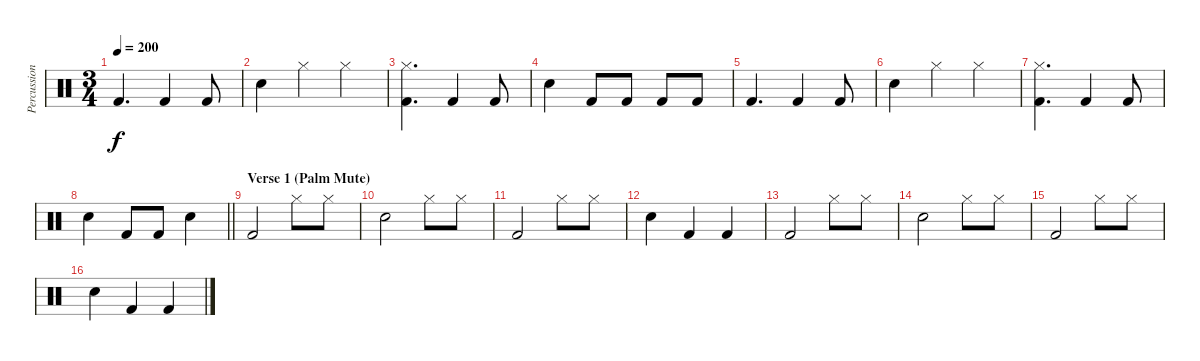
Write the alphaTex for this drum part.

\track ("Percussion" "Percussion") {instrument percussion}
\staff {score}
\articulation defaults
\ts (3 4)
\tempo 200
\clef neutral
\ks c "Kick (hit) 2".4{d dy f} "Kick (hit) 2".4 "Kick (hit) 2".8
|
"Snare (hit) 2".4 "Hi-Hat (closed)".4 "Hi-Hat (closed)".4 |
("Hi-Hat (closed)" "Kick (hit) 2").4{d} "Kick (hit) 2".4 "Kick (hit) 2".8 |
"Snare (hit) 2".4 "Kick (hit) 2".8 "Kick (hit) 2".8 "Kick (hit) 2".8 "Kick (hit) 2".8 |
"Kick (hit) 2".4{d} "Kick (hit) 2".4 "Kick (hit) 2".8 |
"Snare (hit) 2".4 "Hi-Hat (closed)".4 "Hi-Hat (closed)".4 |
("Hi-Hat (closed)" "Kick (hit) 2").4{d} "Kick (hit) 2".4 "Kick (hit) 2".8 |
\barLineRight lightlight "Snare (hit) 2".4 "Kick (hit) 2".8 "Kick (hit) 2".8 "Snare (hit) 2".4
|
\section ("" "Verse 1 (Palm Mute)")
"Kick (hit) 2".2 "Hi-Hat (closed)".8 "Hi-Hat (closed)".8 |
"Snare (hit) 2".2 "Hi-Hat (closed)".8 "Hi-Hat (closed)".8 |
"Kick (hit) 2".2 "Hi-Hat (closed)".8 "Hi-Hat (closed)".8 |
"Snare (hit) 2".4 "Kick (hit) 2".4 "Kick (hit) 2".4 |
"Kick (hit) 2".2 "Hi-Hat (closed)".8 "Hi-Hat (closed)".8 |
"Snare (hit) 2".2 "Hi-Hat (closed)".8 "Hi-Hat (closed)".8 |
"Kick (hit) 2".2 "Hi-Hat (closed)".8 "Hi-Hat (closed)".8 |
"Snare (hit) 2".4 "Kick (hit) 2".4 "Kick (hit) 2".4
